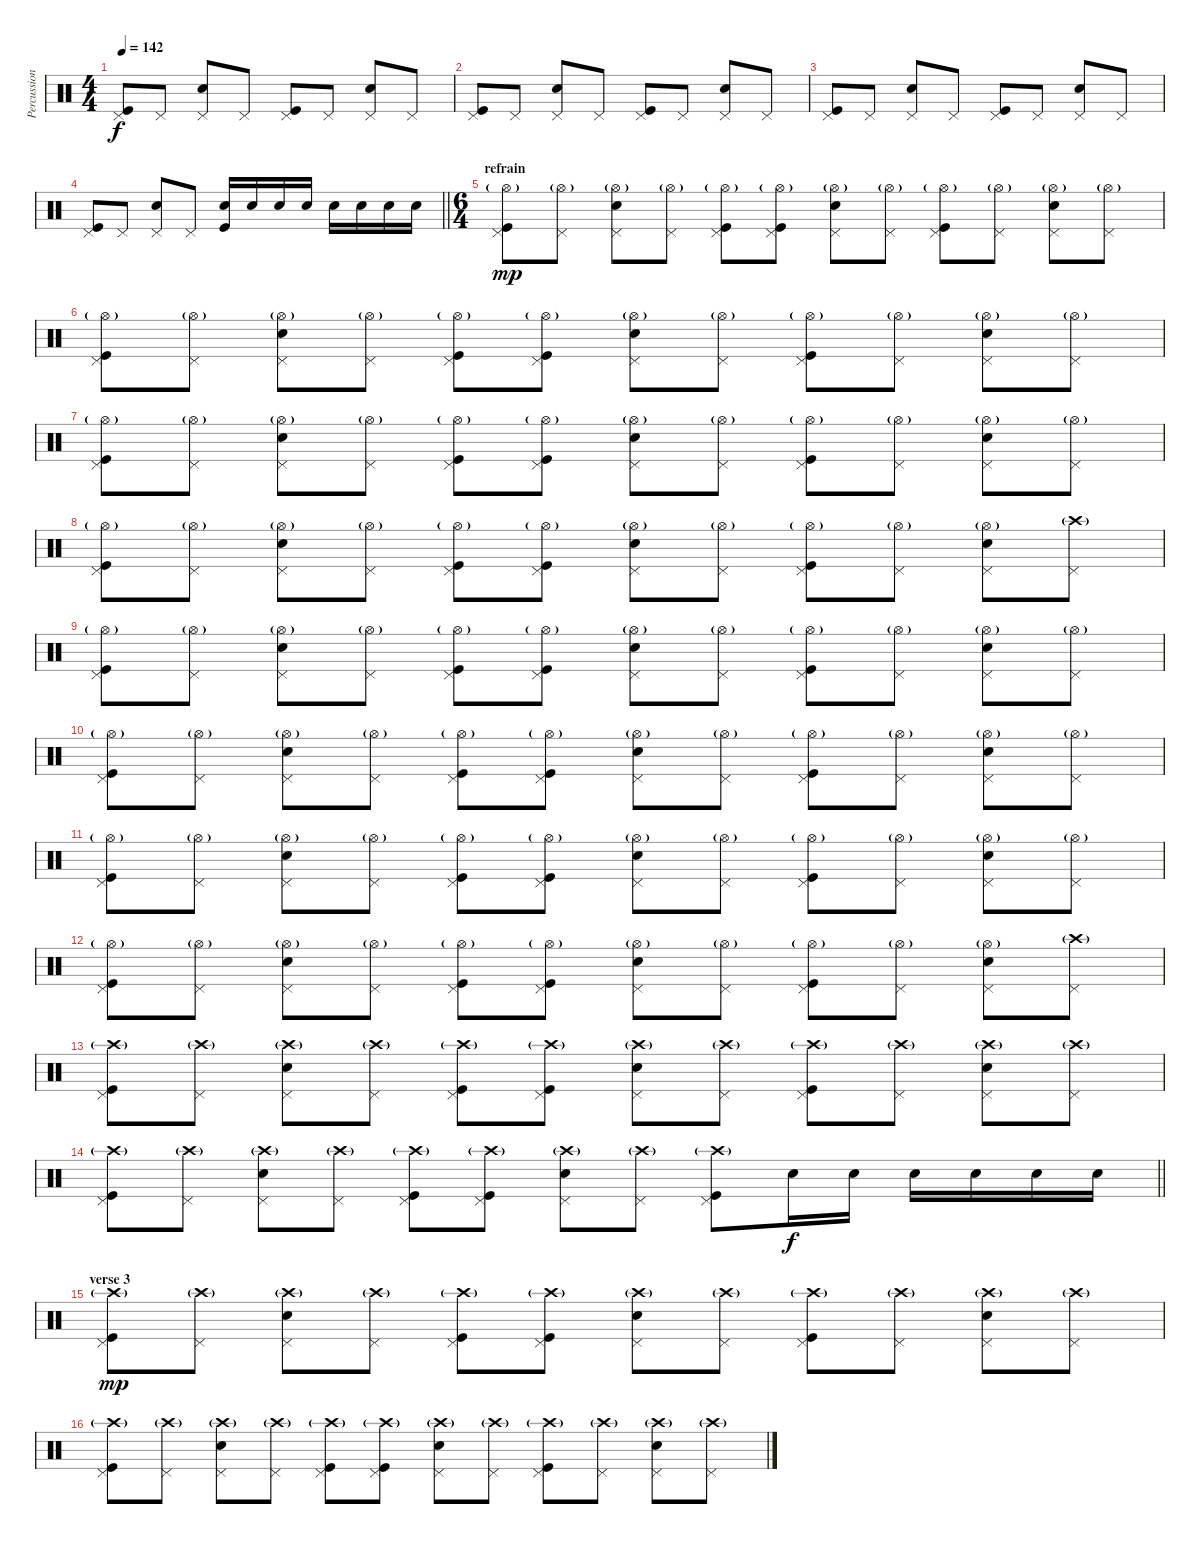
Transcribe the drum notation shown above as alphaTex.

\track ("Percussions" "Percussion") {instrument percussion}
\staff {score}
\articulation defaults
\ts (4 4)
\section ("" "")
\tempo 142
\clef neutral
\ks c
("Pedal Hi-Hat (hit)" "Kick (hit)").8{dy f} "Pedal Hi-Hat (hit)".8 ("Pedal Hi-Hat (hit)" "Electric Snare (hit)").8 "Pedal Hi-Hat (hit)".8 ("Pedal Hi-Hat (hit)" "Kick (hit)").8 "Pedal Hi-Hat (hit)".8 ("Pedal Hi-Hat (hit)" "Electric Snare (hit)").8 "Pedal Hi-Hat (hit)".8 |
("Pedal Hi-Hat (hit)" "Kick (hit)").8 "Pedal Hi-Hat (hit)".8 ("Pedal Hi-Hat (hit)" "Electric Snare (hit)").8 "Pedal Hi-Hat (hit)".8 ("Pedal Hi-Hat (hit)" "Kick (hit)").8 "Pedal Hi-Hat (hit)".8 ("Pedal Hi-Hat (hit)" "Electric Snare (hit)").8 "Pedal Hi-Hat (hit)".8 |
("Pedal Hi-Hat (hit)" "Kick (hit)").8 "Pedal Hi-Hat (hit)".8 ("Pedal Hi-Hat (hit)" "Electric Snare (hit)").8 "Pedal Hi-Hat (hit)".8 ("Pedal Hi-Hat (hit)" "Kick (hit)").8 "Pedal Hi-Hat (hit)".8 ("Pedal Hi-Hat (hit)" "Electric Snare (hit)").8 "Pedal Hi-Hat (hit)".8 |
\barLineRight lightlight
("Pedal Hi-Hat (hit)" "Kick (hit)").8 "Pedal Hi-Hat (hit)".8 ("Pedal Hi-Hat (hit)" "Electric Snare (hit)").8 "Pedal Hi-Hat (hit)".8 ("Electric Snare (hit)" "Kick (hit)").16 "Electric Snare (hit)".16 "Electric Snare (hit)".16 "Electric Snare (hit)".16 "Electric Snare (hit)".16 "Electric Snare (hit)".16 "Electric Snare (hit)".16 "Electric Snare (hit)".16 |
\ts (6 4)
\section ("" "refrain")
("Hi-Hat (open)"{g} "Pedal Hi-Hat (hit)" "Kick (hit)").8{dy mp} ("Hi-Hat (open)"{g} "Pedal Hi-Hat (hit)").8 ("Hi-Hat (open)"{g} "Pedal Hi-Hat (hit)" "Electric Snare (hit)").8 ("Hi-Hat (open)"{g} "Pedal Hi-Hat (hit)").8 ("Hi-Hat (open)"{g} "Pedal Hi-Hat (hit)" "Kick (hit)").8 ("Hi-Hat (open)"{g} "Pedal Hi-Hat (hit)" "Kick (hit)").8 ("Hi-Hat (open)"{g} "Pedal Hi-Hat (hit)" "Electric Snare (hit)").8 ("Hi-Hat (open)"{g} "Pedal Hi-Hat (hit)").8 ("Hi-Hat (open)"{g} "Pedal Hi-Hat (hit)" "Kick (hit)").8 ("Hi-Hat (open)"{g} "Pedal Hi-Hat (hit)").8 ("Hi-Hat (open)"{g} "Pedal Hi-Hat (hit)" "Electric Snare (hit)").8 ("Hi-Hat (open)"{g} "Pedal Hi-Hat (hit)").8 |
("Hi-Hat (open)"{g} "Pedal Hi-Hat (hit)" "Kick (hit)").8 ("Hi-Hat (open)"{g} "Pedal Hi-Hat (hit)").8 ("Hi-Hat (open)"{g} "Pedal Hi-Hat (hit)" "Electric Snare (hit)").8 ("Hi-Hat (open)"{g} "Pedal Hi-Hat (hit)").8 ("Hi-Hat (open)"{g} "Pedal Hi-Hat (hit)" "Kick (hit)").8 ("Hi-Hat (open)"{g} "Pedal Hi-Hat (hit)" "Kick (hit)").8 ("Hi-Hat (open)"{g} "Pedal Hi-Hat (hit)" "Electric Snare (hit)").8 ("Hi-Hat (open)"{g} "Pedal Hi-Hat (hit)").8 ("Hi-Hat (open)"{g} "Pedal Hi-Hat (hit)" "Kick (hit)").8 ("Hi-Hat (open)"{g} "Pedal Hi-Hat (hit)").8 ("Hi-Hat (open)"{g} "Pedal Hi-Hat (hit)" "Electric Snare (hit)").8 ("Hi-Hat (open)"{g} "Pedal Hi-Hat (hit)").8 |
("Hi-Hat (open)"{g} "Pedal Hi-Hat (hit)" "Kick (hit)").8 ("Hi-Hat (open)"{g} "Pedal Hi-Hat (hit)").8 ("Hi-Hat (open)"{g} "Pedal Hi-Hat (hit)" "Electric Snare (hit)").8 ("Hi-Hat (open)"{g} "Pedal Hi-Hat (hit)").8 ("Hi-Hat (open)"{g} "Pedal Hi-Hat (hit)" "Kick (hit)").8 ("Hi-Hat (open)"{g} "Pedal Hi-Hat (hit)" "Kick (hit)").8 ("Hi-Hat (open)"{g} "Pedal Hi-Hat (hit)" "Electric Snare (hit)").8 ("Hi-Hat (open)"{g} "Pedal Hi-Hat (hit)").8 ("Hi-Hat (open)"{g} "Pedal Hi-Hat (hit)" "Kick (hit)").8 ("Hi-Hat (open)"{g} "Pedal Hi-Hat (hit)").8 ("Hi-Hat (open)"{g} "Pedal Hi-Hat (hit)" "Electric Snare (hit)").8 ("Hi-Hat (open)"{g} "Pedal Hi-Hat (hit)").8 |
("Hi-Hat (open)"{g} "Pedal Hi-Hat (hit)" "Kick (hit)").8 ("Hi-Hat (open)"{g} "Pedal Hi-Hat (hit)").8 ("Hi-Hat (open)"{g} "Pedal Hi-Hat (hit)" "Electric Snare (hit)").8 ("Hi-Hat (open)"{g} "Pedal Hi-Hat (hit)").8 ("Hi-Hat (open)"{g} "Pedal Hi-Hat (hit)" "Kick (hit)").8 ("Hi-Hat (open)"{g} "Pedal Hi-Hat (hit)" "Kick (hit)").8 ("Hi-Hat (open)"{g} "Pedal Hi-Hat (hit)" "Electric Snare (hit)").8 ("Hi-Hat (open)"{g} "Pedal Hi-Hat (hit)").8 ("Hi-Hat (open)"{g} "Pedal Hi-Hat (hit)" "Kick (hit)").8 ("Hi-Hat (open)"{g} "Pedal Hi-Hat (hit)").8 ("Hi-Hat (open)"{g} "Pedal Hi-Hat (hit)" "Electric Snare (hit)").8 ("Crash high (hit)"{g} "Pedal Hi-Hat (hit)").8 |
("Hi-Hat (open)"{g} "Pedal Hi-Hat (hit)" "Kick (hit)").8 ("Hi-Hat (open)"{g} "Pedal Hi-Hat (hit)").8 ("Hi-Hat (open)"{g} "Pedal Hi-Hat (hit)" "Electric Snare (hit)").8 ("Hi-Hat (open)"{g} "Pedal Hi-Hat (hit)").8 ("Hi-Hat (open)"{g} "Pedal Hi-Hat (hit)" "Kick (hit)").8 ("Hi-Hat (open)"{g} "Pedal Hi-Hat (hit)" "Kick (hit)").8 ("Hi-Hat (open)"{g} "Pedal Hi-Hat (hit)" "Electric Snare (hit)").8 ("Hi-Hat (open)"{g} "Pedal Hi-Hat (hit)").8 ("Hi-Hat (open)"{g} "Pedal Hi-Hat (hit)" "Kick (hit)").8 ("Hi-Hat (open)"{g} "Pedal Hi-Hat (hit)").8 ("Hi-Hat (open)"{g} "Pedal Hi-Hat (hit)" "Electric Snare (hit)").8 ("Hi-Hat (open)"{g} "Pedal Hi-Hat (hit)").8 |
("Hi-Hat (open)"{g} "Pedal Hi-Hat (hit)" "Kick (hit)").8 ("Hi-Hat (open)"{g} "Pedal Hi-Hat (hit)").8 ("Hi-Hat (open)"{g} "Pedal Hi-Hat (hit)" "Electric Snare (hit)").8 ("Hi-Hat (open)"{g} "Pedal Hi-Hat (hit)").8 ("Hi-Hat (open)"{g} "Pedal Hi-Hat (hit)" "Kick (hit)").8 ("Hi-Hat (open)"{g} "Pedal Hi-Hat (hit)" "Kick (hit)").8 ("Hi-Hat (open)"{g} "Pedal Hi-Hat (hit)" "Electric Snare (hit)").8 ("Hi-Hat (open)"{g} "Pedal Hi-Hat (hit)").8 ("Hi-Hat (open)"{g} "Pedal Hi-Hat (hit)" "Kick (hit)").8 ("Hi-Hat (open)"{g} "Pedal Hi-Hat (hit)").8 ("Hi-Hat (open)"{g} "Pedal Hi-Hat (hit)" "Electric Snare (hit)").8 ("Hi-Hat (open)"{g} "Pedal Hi-Hat (hit)").8 |
("Hi-Hat (open)"{g} "Pedal Hi-Hat (hit)" "Kick (hit)").8 ("Hi-Hat (open)"{g} "Pedal Hi-Hat (hit)").8 ("Hi-Hat (open)"{g} "Pedal Hi-Hat (hit)" "Electric Snare (hit)").8 ("Hi-Hat (open)"{g} "Pedal Hi-Hat (hit)").8 ("Hi-Hat (open)"{g} "Pedal Hi-Hat (hit)" "Kick (hit)").8 ("Hi-Hat (open)"{g} "Pedal Hi-Hat (hit)" "Kick (hit)").8 ("Hi-Hat (open)"{g} "Pedal Hi-Hat (hit)" "Electric Snare (hit)").8 ("Hi-Hat (open)"{g} "Pedal Hi-Hat (hit)").8 ("Hi-Hat (open)"{g} "Pedal Hi-Hat (hit)" "Kick (hit)").8 ("Hi-Hat (open)"{g} "Pedal Hi-Hat (hit)").8 ("Hi-Hat (open)"{g} "Pedal Hi-Hat (hit)" "Electric Snare (hit)").8 ("Hi-Hat (open)"{g} "Pedal Hi-Hat (hit)").8 |
("Hi-Hat (open)"{g} "Pedal Hi-Hat (hit)" "Kick (hit)").8 ("Hi-Hat (open)"{g} "Pedal Hi-Hat (hit)").8 ("Hi-Hat (open)"{g} "Pedal Hi-Hat (hit)" "Electric Snare (hit)").8 ("Hi-Hat (open)"{g} "Pedal Hi-Hat (hit)").8 ("Hi-Hat (open)"{g} "Pedal Hi-Hat (hit)" "Kick (hit)").8 ("Hi-Hat (open)"{g} "Pedal Hi-Hat (hit)" "Kick (hit)").8 ("Hi-Hat (open)"{g} "Pedal Hi-Hat (hit)" "Electric Snare (hit)").8 ("Hi-Hat (open)"{g} "Pedal Hi-Hat (hit)").8 ("Hi-Hat (open)"{g} "Pedal Hi-Hat (hit)" "Kick (hit)").8 ("Hi-Hat (open)"{g} "Pedal Hi-Hat (hit)").8 ("Hi-Hat (open)"{g} "Pedal Hi-Hat (hit)" "Electric Snare (hit)").8 ("Crash high (hit)"{g} "Pedal Hi-Hat (hit)").8 |
("Crash high (hit)"{g} "Pedal Hi-Hat (hit)" "Kick (hit)").8 ("Crash high (hit)"{g} "Pedal Hi-Hat (hit)").8 ("Crash high (hit)"{g} "Pedal Hi-Hat (hit)" "Electric Snare (hit)").8 ("Crash high (hit)"{g} "Pedal Hi-Hat (hit)").8 ("Crash high (hit)"{g} "Pedal Hi-Hat (hit)" "Kick (hit)").8 ("Crash high (hit)"{g} "Pedal Hi-Hat (hit)" "Kick (hit)").8 ("Crash high (hit)"{g} "Pedal Hi-Hat (hit)" "Electric Snare (hit)").8 ("Crash high (hit)"{g} "Pedal Hi-Hat (hit)").8 ("Crash high (hit)"{g} "Pedal Hi-Hat (hit)" "Kick (hit)").8 ("Crash high (hit)"{g} "Pedal Hi-Hat (hit)").8 ("Crash high (hit)"{g} "Pedal Hi-Hat (hit)" "Electric Snare (hit)").8 ("Crash high (hit)"{g} "Pedal Hi-Hat (hit)").8 |
\barLineRight lightlight
("Crash high (hit)"{g} "Pedal Hi-Hat (hit)" "Kick (hit)").8 ("Crash high (hit)"{g} "Pedal Hi-Hat (hit)").8 ("Crash high (hit)"{g} "Pedal Hi-Hat (hit)" "Electric Snare (hit)").8 ("Crash high (hit)"{g} "Pedal Hi-Hat (hit)").8 ("Crash high (hit)"{g} "Pedal Hi-Hat (hit)" "Kick (hit)").8 ("Crash high (hit)"{g} "Pedal Hi-Hat (hit)" "Kick (hit)").8 ("Crash high (hit)"{g} "Pedal Hi-Hat (hit)" "Electric Snare (hit)").8 ("Crash high (hit)"{g} "Pedal Hi-Hat (hit)").8 ("Crash high (hit)"{g} "Pedal Hi-Hat (hit)" "Kick (hit)").8 "Electric Snare (hit)".16{dy f} "Electric Snare (hit)".16 "Electric Snare (hit)".16 "Electric Snare (hit)".16 "Electric Snare (hit)".16 "Electric Snare (hit)".16 |
\section ("" "verse 3")
("Crash high (hit)"{g} "Pedal Hi-Hat (hit)" "Kick (hit)").8{dy mp} ("Crash high (hit)"{g} "Pedal Hi-Hat (hit)").8 ("Crash high (hit)"{g} "Pedal Hi-Hat (hit)" "Electric Snare (hit)").8 ("Crash high (hit)"{g} "Pedal Hi-Hat (hit)").8 ("Crash high (hit)"{g} "Pedal Hi-Hat (hit)" "Kick (hit)").8 ("Crash high (hit)"{g} "Pedal Hi-Hat (hit)" "Kick (hit)").8 ("Crash high (hit)"{g} "Pedal Hi-Hat (hit)" "Electric Snare (hit)").8 ("Crash high (hit)"{g} "Pedal Hi-Hat (hit)").8 ("Crash high (hit)"{g} "Pedal Hi-Hat (hit)" "Kick (hit)").8 ("Crash high (hit)"{g} "Pedal Hi-Hat (hit)").8 ("Crash high (hit)"{g} "Pedal Hi-Hat (hit)" "Electric Snare (hit)").8 ("Crash high (hit)"{g} "Pedal Hi-Hat (hit)").8 |
("Crash high (hit)"{g} "Pedal Hi-Hat (hit)" "Kick (hit)").8 ("Crash high (hit)"{g} "Pedal Hi-Hat (hit)").8 ("Crash high (hit)"{g} "Pedal Hi-Hat (hit)" "Electric Snare (hit)").8 ("Crash high (hit)"{g} "Pedal Hi-Hat (hit)").8 ("Crash high (hit)"{g} "Pedal Hi-Hat (hit)" "Kick (hit)").8 ("Crash high (hit)"{g} "Pedal Hi-Hat (hit)" "Kick (hit)").8 ("Crash high (hit)"{g} "Pedal Hi-Hat (hit)" "Electric Snare (hit)").8 ("Crash high (hit)"{g} "Pedal Hi-Hat (hit)").8 ("Crash high (hit)"{g} "Pedal Hi-Hat (hit)" "Kick (hit)").8 ("Crash high (hit)"{g} "Pedal Hi-Hat (hit)").8 ("Crash high (hit)"{g} "Pedal Hi-Hat (hit)" "Electric Snare (hit)").8 ("Crash high (hit)"{g} "Pedal Hi-Hat (hit)").8
